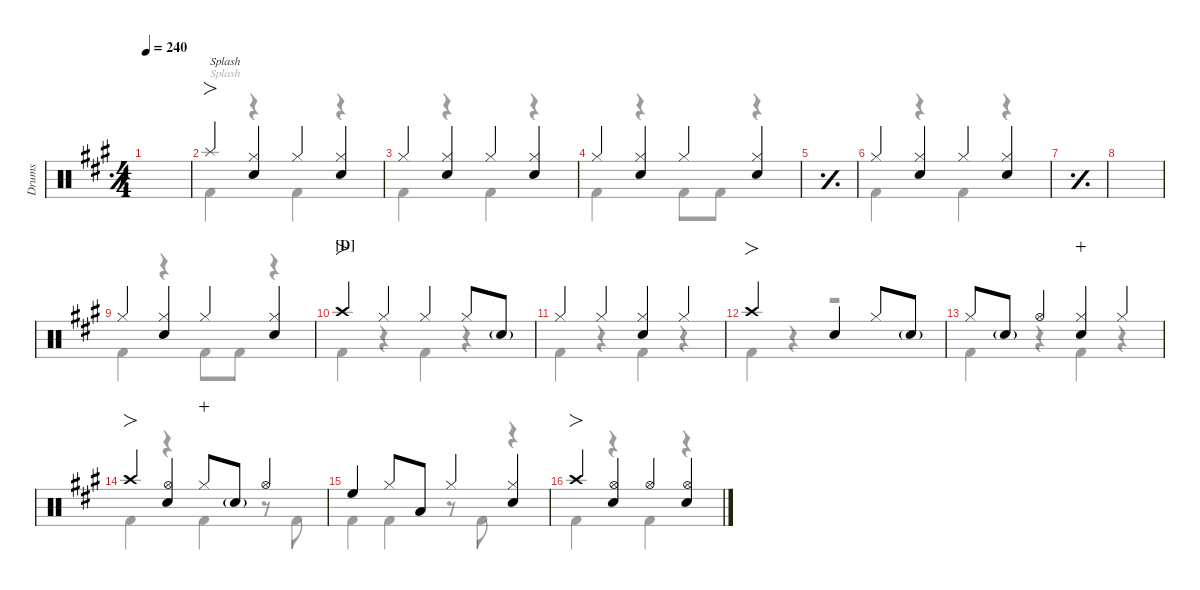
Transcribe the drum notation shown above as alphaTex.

\defaultSystemsLayout 4
\hideDynamics
\bracketExtendMode nobrackets
\otherSystemsTrackNameOrientation horizontal
\track ("Drums" "Drums") {defaultSystemsLayout 4 instrument percussion}
\staff {score}
\articulation defaults
\voice
\ts (4 4)
\tempo 240
\clef neutral
\simile simple
\scale
0.977842
\ks a
|
\simile none
\scale
1.06647 "Splash (hit)"{acc forcenatural}.4{fo txt "Splash" beam Up} ("Hi-Hat (closed)"{acc forcenatural} "Snare (hit) 2"{acc forcenatural}).4{beam Up} "Hi-Hat (closed)"{acc forcenatural}.4{beam Up} ("Hi-Hat (closed)"{acc forcenatural} "Snare (hit) 2"{acc forcenatural}).4{beam Up} |
\scale
0.977842 "Hi-Hat (closed)"{acc forcenatural}.4{beam Up} ("Hi-Hat (closed)"{acc forcenatural} "Snare (hit) 2"{acc forcenatural}).4{beam Up} "Hi-Hat (closed)"{acc forcenatural}.4{beam Up} ("Hi-Hat (closed)"{acc forcenatural} "Snare (hit) 2"{acc forcenatural}).4{beam Up} |
\scale
0.977842 "Hi-Hat (closed)"{acc forcenatural}.4{beam Up} ("Hi-Hat (closed)"{acc forcenatural} "Snare (hit) 2"{acc forcenatural}).4{beam Up} "Hi-Hat (closed)"{acc forcenatural}.4{beam Up} ("Hi-Hat (closed)"{acc forcenatural} "Snare (hit) 2"{acc forcenatural}).4{beam Up} |
\simile simple
\scale
0.977842 |
\simile none
\scale
1.06647 "Hi-Hat (closed)"{acc forcenatural}.4{beam Up} ("Hi-Hat (closed)"{acc forcenatural} "Snare (hit) 2"{acc forcenatural}).4{beam Up} "Hi-Hat (closed)"{acc forcenatural}.4{beam Up} ("Hi-Hat (closed)"{acc forcenatural} "Snare (hit) 2"{acc forcenatural}).4{beam Up} |
\simile simple
\scale
0.977842 |
\scale
0.977842 |
\simile none
\scale
0.977842 "Hi-Hat (closed)"{acc forcenatural}.4{beam Up} ("Hi-Hat (closed)"{acc forcenatural} "Snare (hit) 2"{acc forcenatural}).4{beam Up} "Hi-Hat (closed)"{acc forcenatural}.4{beam Up} ("Hi-Hat (closed)"{acc forcenatural} "Snare (hit) 2"{acc forcenatural}).4{beam Up} |
\section ("D" "")
\scale
1.06647 "Crash high (hit)"{acc forcenatural}.4{fo beam Up} "Hi-Hat (closed)"{acc forcenatural}.4{beam Up} "Hi-Hat (closed)"{acc forcenatural}.4{beam Up} "Hi-Hat (closed)"{acc forcenatural}.8{beam Up} "Snare (hit) 2"{g acc forcenatural}.8{dy mf beam Up} |
\scale
0.977842 "Hi-Hat (closed)"{acc forcenatural}.4{dy f beam Up} "Hi-Hat (closed)"{acc forcenatural}.4{beam Up} ("Hi-Hat (closed)"{acc forcenatural} "Snare (hit) 2"{acc forcenatural}).4{beam Up} "Hi-Hat (closed)"{acc forcenatural}.4{beam Up} |
\scale
0.977842 "Crash high (hit)"{acc forcenatural}.2{fo beam Up} "Snare (hit) 2"{acc forcenatural}.4{beam Up} "Hi-Hat (closed)"{acc forcenatural}.8{beam Up} "Snare (hit) 2"{g acc forcenatural}.8{dy mf beam Up} |
\scale
0.977842 "Hi-Hat (closed)"{acc forcenatural}.8{dy f beam Up} "Snare (hit) 2"{g acc forcenatural}.8{dy mf beam Up} "Hi-Hat (open)"{acc forcenatural}.4{dy f beam Up} ("Hi-Hat (closed)"{acc forcenatural} "Snare (hit) 2"{acc forcenatural}).4{wahc beam Up} "Hi-Hat (closed)"{acc forcenatural}.4{beam Up} |
\scale
1.06647 "Crash high (hit)"{acc forcenatural}.4{fo beam Up} ("Hi-Hat (open)"{acc forcenatural} "Snare (hit) 2"{acc forcenatural}).4{beam Up} "Hi-Hat (closed)"{acc forcenatural}.8{dy p wahc beam Up} "Snare (hit) 2"{g acc forcenatural}.8{dy mf beam Up} "Hi-Hat (open)"{acc forcenatural}.4{dy f beam Up} |
\scale
0.977842 "High Floor Tom (hit)"{acc forcenatural}.4{dy fff beam Up} "Hi-Hat (closed)"{acc forcenatural}.8{dy f beam Up} "Low Tom (hit)"{acc forcenatural}.8{dy fff beam Up} "Hi-Hat (closed)"{acc forcenatural}.4{dy f beam Up} ("Snare (hit) 2"{acc forcenatural} "Hi-Hat (closed)"{acc forcenatural}).4{beam Up} |
\scale
0.977842 "Crash high (hit)"{acc forcenatural}.4{fo beam Up} ("Hi-Hat (open)"{acc forcenatural} "Snare (hit) 2"{acc forcenatural}).4{beam Up} "Hi-Hat (open)"{acc forcenatural}.4{beam Up} ("Hi-Hat (open)"{acc forcenatural} "Snare (hit) 2"{acc forcenatural}).4{beam Up}
\voice
\clef neutral
\ottava regular
\simile simple
\scale
0.977842
\ks a
|
\simile none
\scale
1.06647 "Kick (hit) 2"{acc forcenatural}.4{txt "Splash" beam Down} r.4{beam Down} "Kick (hit) 2"{acc forcenatural}.4{beam Down} r.4{beam Down} |
\scale
0.977842 "Kick (hit) 2"{acc forcenatural}.4{beam Down} r.4{beam Down} "Kick (hit) 2"{acc forcenatural}.4{beam Down} r.4{beam Down} |
\scale
0.977842 "Kick (hit) 2"{acc forcenatural}.4{beam Down} r.4{beam Down} "Kick (hit) 2"{acc forcenatural}.8{beam Down} "Kick (hit) 2"{acc forcenatural}.8{beam Down} r.4{beam Down} |
\simile simple
\scale
0.977842 |
\simile none
\scale
1.06647 "Kick (hit) 2"{acc forcenatural}.4{beam Down} r.4{beam Down} "Kick (hit) 2"{acc forcenatural}.4{beam Down} r.4{beam Down} |
\simile simple
\scale
0.977842 |
\scale
0.977842 |
\simile none
\scale
0.977842 "Kick (hit) 2"{acc forcenatural}.4{beam Down} r.4{beam Down} "Kick (hit) 2"{acc forcenatural}.8{beam Down} "Kick (hit) 2"{acc forcenatural}.8{beam Down} r.4{beam Down} |
\scale
1.06647 "Kick (hit) 2"{acc forcenatural}.4{beam Down} r.4{beam Down} "Kick (hit) 2"{acc forcenatural}.4{beam Down} r.4{beam Down} |
\scale
0.977842 "Kick (hit) 2"{acc forcenatural}.4{beam Down} r.4{beam Down} "Kick (hit) 2"{acc forcenatural}.4{beam Down} r.4{beam Down} |
\scale
0.977842 "Kick (hit) 2"{acc forcenatural}.4{beam Down} r.4{beam Down} r.2{beam Down} |
\scale
0.977842 "Kick (hit) 2"{acc forcenatural}.4{beam Down} r.4{beam Down} "Kick (hit) 2"{acc forcenatural}.4{beam Down} r.4{beam Down} |
\scale
1.06647 "Kick (hit) 2"{acc forcenatural}.4{beam Down} r.4{beam Down} "Kick (hit) 2"{acc forcenatural}.4{beam Down} r.8{beam Down} "Kick (hit) 2"{acc forcenatural}.8{beam Down} |
\scale
0.977842 "Kick (hit) 2"{acc forcenatural}.4{beam Down} "Kick (hit) 2"{acc forcenatural}.4{beam Down} r.8{beam Down} "Kick (hit) 2"{acc forcenatural}.8{beam Down} r.4{beam Down} |
\scale
0.977842 "Kick (hit) 2"{acc forcenatural}.4{beam Down} r.4{beam Down} "Kick (hit) 2"{acc forcenatural}.4{beam Down} r.4{beam Down}
